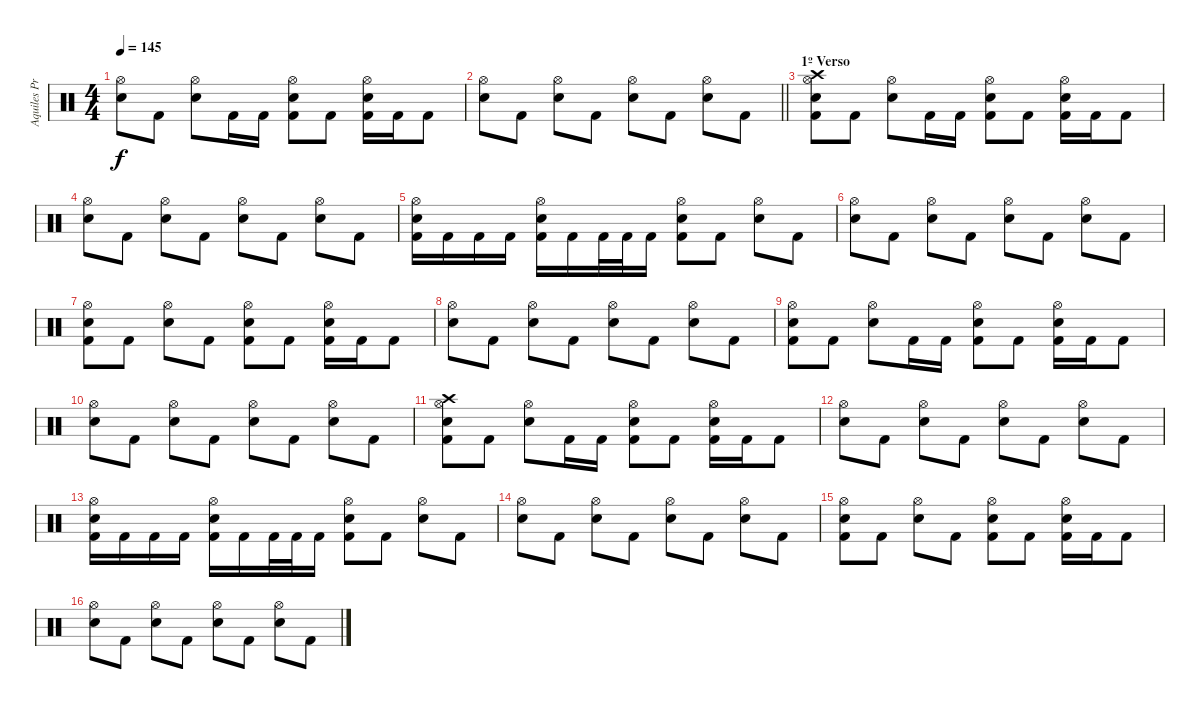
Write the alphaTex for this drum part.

\track ("Aquiles Priester" "Aquiles Pr") {instrument percussion}
\staff {score}
\articulation defaults
\ts (4 4)
\tempo 145
\clef neutral
\ks c
("Hi-Hat (open)" "Electric Snare (hit)").8{dy f} "Kick (hit) 2".8 ("Hi-Hat (open)" "Electric Snare (hit)").8 "Kick (hit) 2".16 "Kick (hit) 2".16 ("Hi-Hat (open)" "Electric Snare (hit)" "Kick (hit) 2").8 "Kick (hit) 2".8 ("Hi-Hat (open)" "Electric Snare (hit)" "Kick (hit) 2").16 "Kick (hit) 2".16 "Kick (hit) 2".8 |
\barLineRight lightlight
("Hi-Hat (open)" "Electric Snare (hit)").8 "Kick (hit) 2".8 ("Hi-Hat (open)" "Electric Snare (hit)").8 "Kick (hit) 2".8 ("Hi-Hat (open)" "Electric Snare (hit)").8 "Kick (hit) 2".8 ("Hi-Hat (open)" "Electric Snare (hit)").8 "Kick (hit) 2".8 |
\section ("" "1º Verso")
("Crash high (hit)" "Hi-Hat (open)" "Electric Snare (hit)" "Kick (hit) 2").8 "Kick (hit) 2".8 ("Hi-Hat (open)" "Electric Snare (hit)").8 "Kick (hit) 2".16 "Kick (hit) 2".16 ("Hi-Hat (open)" "Electric Snare (hit)" "Kick (hit) 2").8 "Kick (hit) 2".8 ("Hi-Hat (open)" "Electric Snare (hit)" "Kick (hit) 2").16 "Kick (hit) 2".16 "Kick (hit) 2".8 |
("Hi-Hat (open)" "Electric Snare (hit)").8 "Kick (hit) 2".8 ("Hi-Hat (open)" "Electric Snare (hit)").8 "Kick (hit) 2".8 ("Hi-Hat (open)" "Electric Snare (hit)").8 "Kick (hit) 2".8 ("Hi-Hat (open)" "Electric Snare (hit)").8 "Kick (hit) 2".8 |
("Hi-Hat (open)" "Electric Snare (hit)" "Kick (hit) 2").16 "Kick (hit) 2".16 "Kick (hit) 2".16 "Kick (hit) 2".16 ("Hi-Hat (open)" "Electric Snare (hit)" "Kick (hit) 2").16 "Kick (hit) 2".16 "Kick (hit) 2".32 "Kick (hit) 2".32 "Kick (hit) 2".16 ("Hi-Hat (open)" "Electric Snare (hit)" "Kick (hit) 2").8 "Kick (hit) 2".8 ("Hi-Hat (open)" "Electric Snare (hit)").8 "Kick (hit) 2".8 |
("Hi-Hat (open)" "Electric Snare (hit)").8 "Kick (hit) 2".8 ("Hi-Hat (open)" "Electric Snare (hit)").8 "Kick (hit) 2".8 ("Hi-Hat (open)" "Electric Snare (hit)").8 "Kick (hit) 2".8 ("Hi-Hat (open)" "Electric Snare (hit)").8 "Kick (hit) 2".8 |
("Hi-Hat (open)" "Electric Snare (hit)" "Kick (hit) 2").8 "Kick (hit) 2".8 ("Hi-Hat (open)" "Electric Snare (hit)").8 "Kick (hit) 2".8 ("Hi-Hat (open)" "Electric Snare (hit)" "Kick (hit) 2").8 "Kick (hit) 2".8 ("Hi-Hat (open)" "Electric Snare (hit)" "Kick (hit) 2").16 "Kick (hit) 2".16 "Kick (hit) 2".8 |
("Hi-Hat (open)" "Electric Snare (hit)").8 "Kick (hit) 2".8 ("Hi-Hat (open)" "Electric Snare (hit)").8 "Kick (hit) 2".8 ("Hi-Hat (open)" "Electric Snare (hit)").8 "Kick (hit) 2".8 ("Hi-Hat (open)" "Electric Snare (hit)").8 "Kick (hit) 2".8 |
("Hi-Hat (open)" "Electric Snare (hit)" "Kick (hit) 2").8 "Kick (hit) 2".8 ("Hi-Hat (open)" "Electric Snare (hit)").8 "Kick (hit) 2".16 "Kick (hit) 2".16 ("Hi-Hat (open)" "Electric Snare (hit)" "Kick (hit) 2").8 "Kick (hit) 2".8 ("Hi-Hat (open)" "Electric Snare (hit)" "Kick (hit) 2").16 "Kick (hit) 2".16 "Kick (hit) 2".8 |
("Hi-Hat (open)" "Electric Snare (hit)").8 "Kick (hit) 2".8 ("Hi-Hat (open)" "Electric Snare (hit)").8 "Kick (hit) 2".8 ("Hi-Hat (open)" "Electric Snare (hit)").8 "Kick (hit) 2".8 ("Hi-Hat (open)" "Electric Snare (hit)").8 "Kick (hit) 2".8 |
("Crash high (hit)" "Hi-Hat (open)" "Electric Snare (hit)" "Kick (hit) 2").8 "Kick (hit) 2".8 ("Hi-Hat (open)" "Electric Snare (hit)").8 "Kick (hit) 2".16 "Kick (hit) 2".16 ("Hi-Hat (open)" "Electric Snare (hit)" "Kick (hit) 2").8 "Kick (hit) 2".8 ("Hi-Hat (open)" "Electric Snare (hit)" "Kick (hit) 2").16 "Kick (hit) 2".16 "Kick (hit) 2".8 |
("Hi-Hat (open)" "Electric Snare (hit)").8 "Kick (hit) 2".8 ("Hi-Hat (open)" "Electric Snare (hit)").8 "Kick (hit) 2".8 ("Hi-Hat (open)" "Electric Snare (hit)").8 "Kick (hit) 2".8 ("Hi-Hat (open)" "Electric Snare (hit)").8 "Kick (hit) 2".8 |
("Hi-Hat (open)" "Electric Snare (hit)" "Kick (hit) 2").16 "Kick (hit) 2".16 "Kick (hit) 2".16 "Kick (hit) 2".16 ("Hi-Hat (open)" "Electric Snare (hit)" "Kick (hit) 2").16 "Kick (hit) 2".16 "Kick (hit) 2".32 "Kick (hit) 2".32 "Kick (hit) 2".16 ("Hi-Hat (open)" "Electric Snare (hit)" "Kick (hit) 2").8 "Kick (hit) 2".8 ("Hi-Hat (open)" "Electric Snare (hit)").8 "Kick (hit) 2".8 |
("Hi-Hat (open)" "Electric Snare (hit)").8 "Kick (hit) 2".8 ("Hi-Hat (open)" "Electric Snare (hit)").8 "Kick (hit) 2".8 ("Hi-Hat (open)" "Electric Snare (hit)").8 "Kick (hit) 2".8 ("Hi-Hat (open)" "Electric Snare (hit)").8 "Kick (hit) 2".8 |
("Hi-Hat (open)" "Electric Snare (hit)" "Kick (hit) 2").8 "Kick (hit) 2".8 ("Hi-Hat (open)" "Electric Snare (hit)").8 "Kick (hit) 2".8 ("Hi-Hat (open)" "Electric Snare (hit)" "Kick (hit) 2").8 "Kick (hit) 2".8 ("Hi-Hat (open)" "Electric Snare (hit)" "Kick (hit) 2").16 "Kick (hit) 2".16 "Kick (hit) 2".8 |
("Hi-Hat (open)" "Electric Snare (hit)").8 "Kick (hit) 2".8 ("Hi-Hat (open)" "Electric Snare (hit)").8 "Kick (hit) 2".8 ("Hi-Hat (open)" "Electric Snare (hit)").8 "Kick (hit) 2".8 ("Hi-Hat (open)" "Electric Snare (hit)").8 "Kick (hit) 2".8
